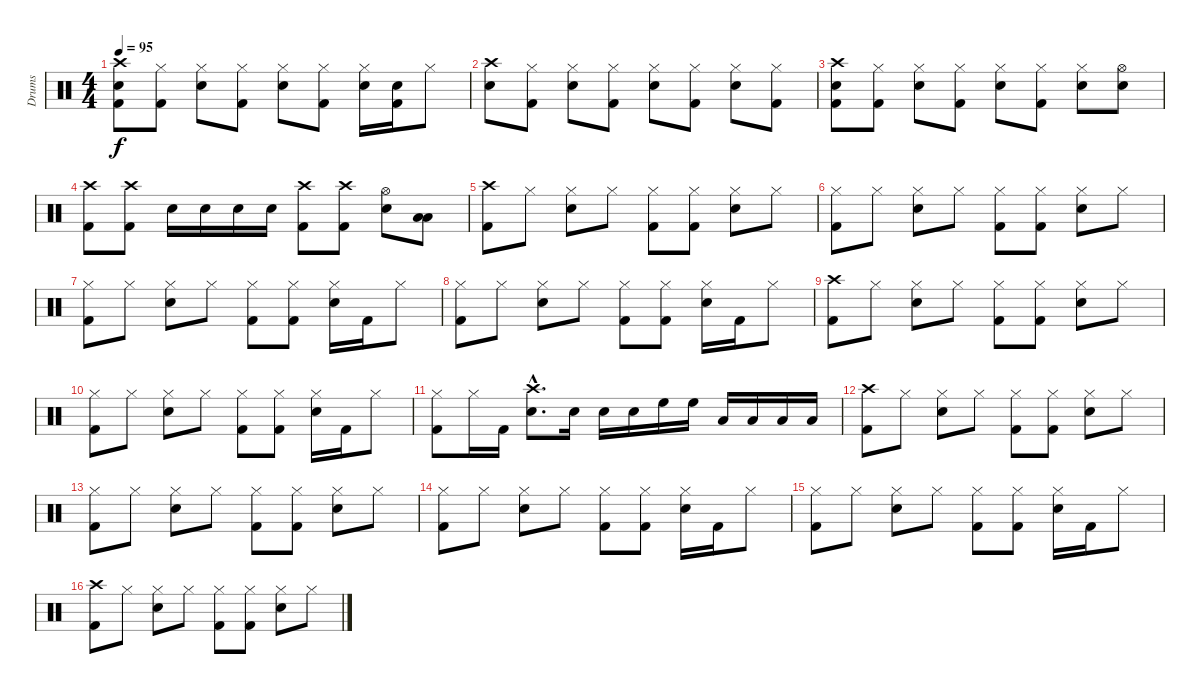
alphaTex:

\track ("Drums" "Drums") {instrument percussion}
\staff {score}
\articulation defaults
\ts (4 4)
\tempo 95
\clef neutral
\ks c
("Kick (hit) 2" "Crash high (hit)" "Snare (hit) 2").8{dy f} ("Kick (hit) 2" "Hi-Hat (closed)").8 ("Snare (hit) 2" "Hi-Hat (closed)").8 ("Kick (hit) 2" "Hi-Hat (closed)").8 ("Snare (hit) 2" "Hi-Hat (closed)").8 ("Kick (hit) 2" "Hi-Hat (closed)").8 ("Snare (hit) 2" "Hi-Hat (closed)").16 ("Kick (hit) 2" "Snare (hit)").16 "Hi-Hat (closed)".8 |
("Crash high (hit)" "Snare (hit) 2").8 ("Kick (hit) 2" "Hi-Hat (closed)").8 ("Hi-Hat (closed)" "Snare (hit) 2").8 ("Hi-Hat (closed)" "Kick (hit) 2").8 ("Hi-Hat (closed)" "Snare (hit) 2").8 ("Hi-Hat (closed)" "Kick (hit) 2").8 ("Hi-Hat (closed)" "Snare (hit) 2").8 ("Hi-Hat (closed)" "Kick (hit) 2").8 |
("Kick (hit) 2" "Crash high (hit)" "Snare (hit) 2").8 ("Kick (hit) 2" "Hi-Hat (closed)").8 ("Snare (hit) 2" "Hi-Hat (closed)").8 ("Kick (hit) 2" "Hi-Hat (closed)").8 ("Snare (hit) 2" "Hi-Hat (closed)").8 ("Kick (hit) 2" "Hi-Hat (closed)").8 ("Snare (hit) 2" "Hi-Hat (closed)").8 ("Hi-Hat (open)" "Snare (hit)").8 |
("Crash high (hit)" "Kick (hit) 2").8 ("Crash high (hit)" "Kick (hit) 2").8 "Snare (hit) 2".16 "Snare (hit) 2".16 "Snare (hit) 2".16 "Snare (hit) 2".16 ("Crash high (hit)" "Kick (hit) 2").8 ("Crash high (hit)" "Kick (hit) 2").8 ("Hi-Hat (open)" "Snare (hit) 2").8 ("Low Floor Tom (hit)" "Low Tom (hit)").8 |
("Crash high (hit)" "Kick (hit) 2").8 "Hi-Hat (closed)".8 ("Hi-Hat (closed)" "Snare (hit) 2").8 "Hi-Hat (closed)".8 ("Hi-Hat (closed)" "Kick (hit) 2").8 ("Hi-Hat (closed)" "Kick (hit) 2").8 ("Hi-Hat (closed)" "Snare (hit) 2").8 "Hi-Hat (closed)".8 |
("Hi-Hat (closed)" "Kick (hit) 2").8 "Hi-Hat (closed)".8 ("Hi-Hat (closed)" "Snare (hit) 2").8 "Hi-Hat (closed)".8 ("Hi-Hat (closed)" "Kick (hit) 2").8 ("Hi-Hat (closed)" "Kick (hit) 2").8 ("Hi-Hat (closed)" "Snare (hit) 2").8 "Hi-Hat (closed)".8 |
("Kick (hit) 2" "Hi-Hat (closed)").8 "Hi-Hat (closed)".8 ("Snare (hit) 2" "Hi-Hat (closed)").8 "Hi-Hat (closed)".8 ("Kick (hit) 2" "Hi-Hat (closed)").8 ("Kick (hit) 2" "Hi-Hat (closed)").8 ("Snare (hit) 2" "Hi-Hat (closed)").16 "Kick (hit) 2".16 "Hi-Hat (closed)".8 |
("Kick (hit) 2" "Hi-Hat (closed)").8 "Hi-Hat (closed)".8 ("Snare (hit) 2" "Hi-Hat (closed)").8 "Hi-Hat (closed)".8 ("Kick (hit) 2" "Hi-Hat (closed)").8 ("Kick (hit) 2" "Hi-Hat (closed)").8 ("Snare (hit) 2" "Hi-Hat (closed)").16 "Kick (hit) 2".16 "Hi-Hat (closed)".8 |
("Crash high (hit)" "Kick (hit) 2").8 "Hi-Hat (closed)".8 ("Hi-Hat (closed)" "Snare (hit) 2").8 "Hi-Hat (closed)".8 ("Hi-Hat (closed)" "Kick (hit) 2").8 ("Hi-Hat (closed)" "Kick (hit) 2").8 ("Hi-Hat (closed)" "Snare (hit) 2").8 "Hi-Hat (closed)".8 |
("Kick (hit) 2" "Hi-Hat (closed)").8 "Hi-Hat (closed)".8 ("Snare (hit) 2" "Hi-Hat (closed)").8 "Hi-Hat (closed)".8 ("Kick (hit) 2" "Hi-Hat (closed)").8 ("Kick (hit) 2" "Hi-Hat (closed)").8 ("Snare (hit) 2" "Hi-Hat (closed)").16 "Kick (hit) 2".16 "Hi-Hat (closed)".8 |
("Kick (hit) 2" "Hi-Hat (closed)").8 "Hi-Hat (closed)".16 "Kick (hit) 2".16 ("Snare (hit) 2"{hac} "Crash high (hit)"{hac}).8{d} "Snare (hit) 2".16 "Snare (hit) 2".16 "Snare (hit) 2".16 "High Floor Tom (hit)".16 "High Floor Tom (hit)".16 "Low Tom (hit)".16 "Low Tom (hit)".16 "Low Floor Tom (hit)".16 "Low Floor Tom (hit)".16 |
("Crash high (hit)" "Kick (hit) 2").8 "Hi-Hat (closed)".8 ("Hi-Hat (closed)" "Snare (hit) 2").8 "Hi-Hat (closed)".8 ("Hi-Hat (closed)" "Kick (hit) 2").8 ("Hi-Hat (closed)" "Kick (hit) 2").8 ("Hi-Hat (closed)" "Snare (hit) 2").8 "Hi-Hat (closed)".8 |
("Hi-Hat (closed)" "Kick (hit) 2").8 "Hi-Hat (closed)".8 ("Hi-Hat (closed)" "Snare (hit) 2").8 "Hi-Hat (closed)".8 ("Hi-Hat (closed)" "Kick (hit) 2").8 ("Hi-Hat (closed)" "Kick (hit) 2").8 ("Hi-Hat (closed)" "Snare (hit) 2").8 "Hi-Hat (closed)".8 |
("Kick (hit) 2" "Hi-Hat (closed)").8 "Hi-Hat (closed)".8 ("Snare (hit) 2" "Hi-Hat (closed)").8 "Hi-Hat (closed)".8 ("Kick (hit) 2" "Hi-Hat (closed)").8 ("Kick (hit) 2" "Hi-Hat (closed)").8 ("Snare (hit) 2" "Hi-Hat (closed)").16 "Kick (hit) 2".16 "Hi-Hat (closed)".8 |
("Kick (hit) 2" "Hi-Hat (closed)").8 "Hi-Hat (closed)".8 ("Snare (hit) 2" "Hi-Hat (closed)").8 "Hi-Hat (closed)".8 ("Kick (hit) 2" "Hi-Hat (closed)").8 ("Kick (hit) 2" "Hi-Hat (closed)").8 ("Snare (hit) 2" "Hi-Hat (closed)").16 "Kick (hit) 2".16 "Hi-Hat (closed)".8 |
("Crash high (hit)" "Kick (hit) 2").8 "Hi-Hat (closed)".8 ("Hi-Hat (closed)" "Snare (hit) 2").8 "Hi-Hat (closed)".8 ("Hi-Hat (closed)" "Kick (hit) 2").8 ("Hi-Hat (closed)" "Kick (hit) 2").8 ("Hi-Hat (closed)" "Snare (hit) 2").8 "Hi-Hat (closed)".8
